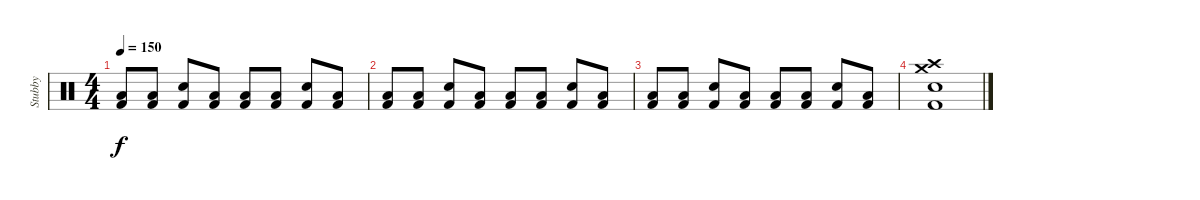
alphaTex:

\track ("Stubby" "Stubby") {instrument percussion}
\staff {score}
\articulation defaults
\ts (4 4)
\tempo 150
\clef neutral
\ks c
("Low Floor Tom (hit)" "Kick (hit) 2").8{dy f} ("Low Floor Tom (hit)" "Kick (hit) 2").8 ("Snare (hit) 2" "Kick (hit) 2").8 ("Low Floor Tom (hit)" "Kick (hit) 2").8 ("Low Floor Tom (hit)" "Kick (hit) 2").8 ("Low Floor Tom (hit)" "Kick (hit) 2").8 ("Snare (hit) 2" "Kick (hit) 2").8 ("Low Floor Tom (hit)" "Kick (hit) 2").8 |
("Low Floor Tom (hit)" "Kick (hit) 2").8 ("Low Floor Tom (hit)" "Kick (hit) 2").8 ("Snare (hit) 2" "Kick (hit) 2").8 ("Low Floor Tom (hit)" "Kick (hit) 2").8 ("Low Floor Tom (hit)" "Kick (hit) 2").8 ("Low Floor Tom (hit)" "Kick (hit) 2").8 ("Snare (hit) 2" "Kick (hit) 2").8 ("Low Floor Tom (hit)" "Kick (hit) 2").8 |
("Low Floor Tom (hit)" "Kick (hit) 2").8 ("Low Floor Tom (hit)" "Kick (hit) 2").8 ("Snare (hit) 2" "Kick (hit) 2").8 ("Low Floor Tom (hit)" "Kick (hit) 2").8 ("Low Floor Tom (hit)" "Kick (hit) 2").8 ("Low Floor Tom (hit)" "Kick (hit) 2").8 ("Snare (hit) 2" "Kick (hit) 2").8 ("Low Floor Tom (hit)" "Kick (hit) 2").8 |
("Crash high (hit)" "Crash medium (hit)" "Snare (hit) 2" "Kick (hit) 2").1
